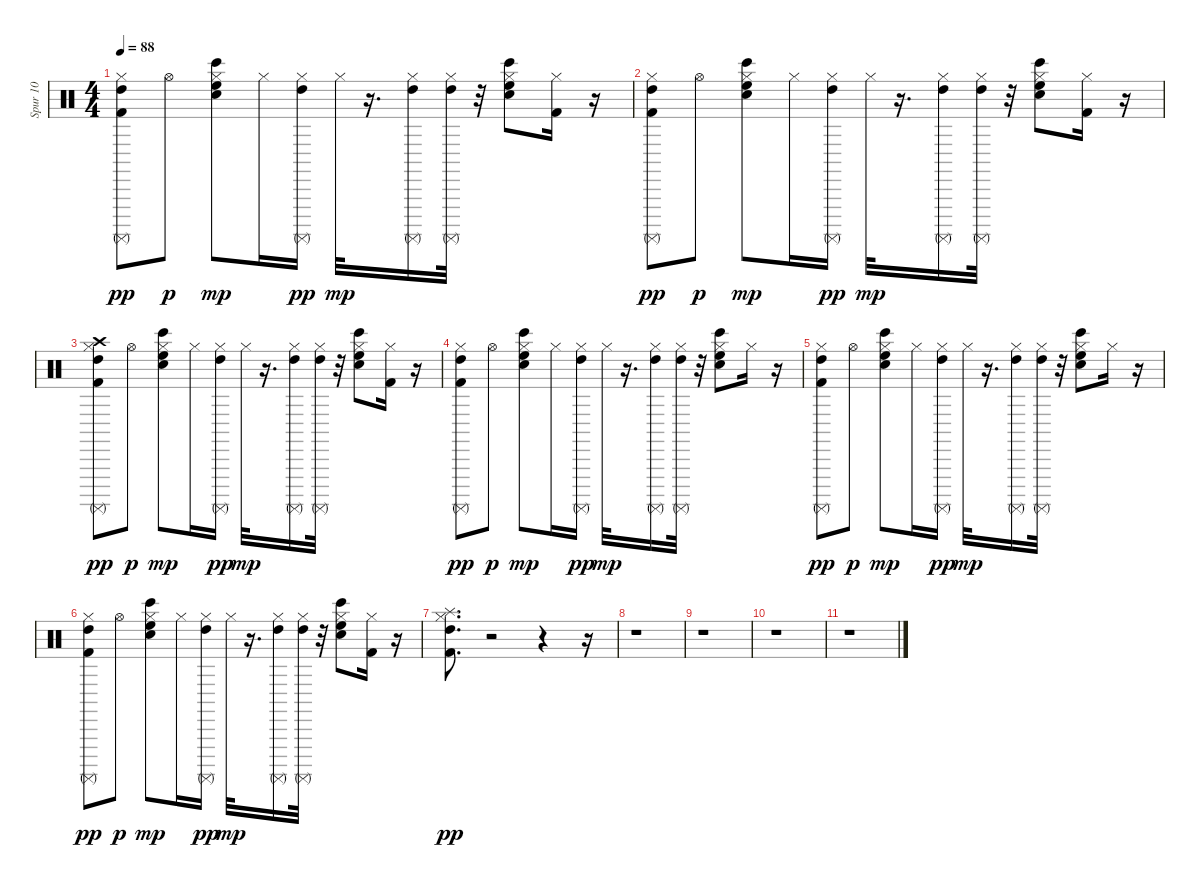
\track ("Spur 10" "Spur 10") {instrument percussion}
\staff {score}
\articulation defaults
\ts (4 4)
\tempo 88
\clef neutral
\ks c
("Kick (hit) 2" "High Tom (hit)" "Surdo (mute)" "Hi-Hat (closed)").8{dy pp} "Hi-Hat (open)".8{dy p} ("Bongo High (hit)" "Hand Clap (hit)" "High Floor Tom (hit)" "Hi-Hat (closed)").8{dy mp} "Hi-Hat (closed)".16 ("High Tom (hit)" "Surdo (mute)" "Hi-Hat (closed)").16{dy pp} "Hi-Hat (closed)".32{dy mp} r.16{d} ("High Tom (hit)" "Surdo (mute)" "Hi-Hat (closed)").16 ("Hi-Hat (closed)" "High Tom (hit)" "Surdo (mute)").32 r.32 ("Bongo High (hit)" "Hand Clap (hit)" "High Floor Tom (hit)" "Hi-Hat (closed)").8 ("Kick (hit) 2" "Hi-Hat (closed)").16 r.16 |
("Kick (hit) 2" "High Tom (hit)" "Surdo (mute)" "Hi-Hat (closed)").8{dy pp} "Hi-Hat (open)".8{dy p} ("Bongo High (hit)" "Hand Clap (hit)" "High Floor Tom (hit)" "Hi-Hat (closed)").8{dy mp} "Hi-Hat (closed)".16 ("High Tom (hit)" "Surdo (mute)" "Hi-Hat (closed)").16{dy pp} "Hi-Hat (closed)".32{dy mp} r.16{d} ("High Tom (hit)" "Surdo (mute)" "Hi-Hat (closed)").16 ("Hi-Hat (closed)" "High Tom (hit)" "Surdo (mute)").32 r.32 ("Bongo High (hit)" "Hand Clap (hit)" "High Floor Tom (hit)" "Hi-Hat (closed)").8 ("Kick (hit) 2" "Hi-Hat (closed)").16 r.16 |
("Kick (hit) 2" "High Tom (hit)" "Crash high (hit)" "Surdo (mute)" "Hi-Hat (closed)").8{dy pp} "Hi-Hat (open)".8{dy p} ("Bongo High (hit)" "Hand Clap (hit)" "High Floor Tom (hit)" "Hi-Hat (closed)").8{dy mp} "Hi-Hat (closed)".16 ("High Tom (hit)" "Surdo (mute)" "Hi-Hat (closed)").16{dy pp} "Hi-Hat (closed)".32{dy mp} r.16{d} ("High Tom (hit)" "Surdo (mute)" "Hi-Hat (closed)").16 ("Hi-Hat (closed)" "High Tom (hit)" "Surdo (mute)").32 r.32 ("Bongo High (hit)" "Hand Clap (hit)" "High Floor Tom (hit)" "Hi-Hat (closed)").8 ("Kick (hit) 2" "Hi-Hat (closed)").16 r.16 |
("Kick (hit) 2" "High Tom (hit)" "Surdo (mute)" "Hi-Hat (closed)").8{dy pp} "Hi-Hat (open)".8{dy p} ("Bongo High (hit)" "Hand Clap (hit)" "High Floor Tom (hit)" "Hi-Hat (closed)").8{dy mp} "Hi-Hat (closed)".16 ("High Tom (hit)" "Surdo (mute)" "Hi-Hat (closed)").16{dy pp} "Hi-Hat (closed)".32{dy mp} r.16{d} ("High Tom (hit)" "Surdo (mute)" "Hi-Hat (closed)").16 ("Hi-Hat (closed)" "High Tom (hit)" "Surdo (mute)").32 r.32 ("Bongo High (hit)" "Hand Clap (hit)" "High Floor Tom (hit)" "Hi-Hat (closed)").8 "Hi-Hat (closed)".16 r.16 |
("Kick (hit) 2" "High Tom (hit)" "Surdo (mute)" "Hi-Hat (closed)").8{dy pp} "Hi-Hat (open)".8{dy p} ("Bongo High (hit)" "Hand Clap (hit)" "High Floor Tom (hit)" "Hi-Hat (closed)").8{dy mp} "Hi-Hat (closed)".16 ("High Tom (hit)" "Surdo (mute)" "Hi-Hat (closed)").16{dy pp} "Hi-Hat (closed)".32{dy mp} r.16{d} ("High Tom (hit)" "Surdo (mute)" "Hi-Hat (closed)").16 ("Hi-Hat (closed)" "High Tom (hit)" "Surdo (mute)").32 r.32 ("Bongo High (hit)" "Hand Clap (hit)" "High Floor Tom (hit)" "Hi-Hat (closed)").8 "Hi-Hat (closed)".16 r.16 |
("Kick (hit) 2" "High Tom (hit)" "Surdo (mute)" "Hi-Hat (closed)").8{dy pp} "Hi-Hat (open)".8{dy p} ("Bongo High (hit)" "Hand Clap (hit)" "High Floor Tom (hit)" "Hi-Hat (closed)").8{dy mp} "Hi-Hat (closed)".16 ("High Tom (hit)" "Surdo (mute)" "Hi-Hat (closed)").16{dy pp} "Hi-Hat (closed)".32{dy mp} r.16{d} ("High Tom (hit)" "Surdo (mute)" "Hi-Hat (closed)").16 ("Hi-Hat (closed)" "High Tom (hit)" "Surdo (mute)").32 r.32 ("Bongo High (hit)" "Hand Clap (hit)" "High Floor Tom (hit)" "Hi-Hat (closed)").8 ("Kick (hit) 2" "Hi-Hat (closed)").16 r.16 |
("Kick (hit) 2" "High Tom (hit)" "Splash (hit)" "Hi-Hat (closed)").8{d dy pp} r.2 r.4 r.16 |
r.1 |
r.1 |
r.1 |
r.1
